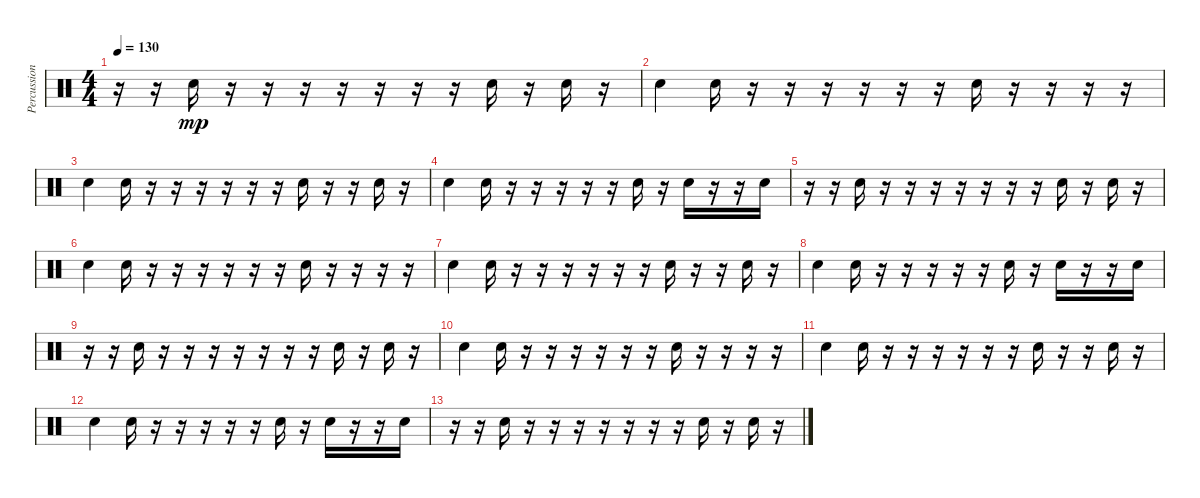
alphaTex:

\track ("Percussion" "Percussion") {instrument percussion}
\staff {score}
\articulation defaults
\ts (4 4)
\tempo 130
\clef neutral
\ks c
r.16{dy mp} r.16 "Snare (hit) 2".16 r.16 r.16 r.16 r.16 r.16 r.16 r.16 "Snare (hit) 2".16 r.16 "Snare (hit) 2".16 r.16 |
"Snare (hit) 2".4 "Snare (hit) 2".16 r.16 r.16 r.16 r.16 r.16 r.16 "Hand Clap (hit)".16 r.16 r.16 r.16 r.16 |
"Snare (hit) 2".4 "Snare (hit) 2".16 r.16 r.16 r.16 r.16 r.16 r.16 "Hand Clap (hit)".16 r.16 r.16 "Snare (hit) 2".16 r.16 |
"Snare (hit) 2".4 "Snare (hit) 2".16 r.16 r.16 r.16 r.16 r.16 "Snare (hit) 2".16 r.16 "Snare (hit) 2".16 r.16 r.16 "Snare (hit) 2".16 |
r.16 r.16 "Snare (hit) 2".16 r.16 r.16 r.16 r.16 r.16 r.16 r.16 "Snare (hit) 2".16 r.16 "Snare (hit) 2".16 r.16 |
"Snare (hit) 2".4 "Snare (hit) 2".16 r.16 r.16 r.16 r.16 r.16 r.16 "Hand Clap (hit)".16 r.16 r.16 r.16 r.16 |
"Snare (hit) 2".4 "Snare (hit) 2".16 r.16 r.16 r.16 r.16 r.16 r.16 "Hand Clap (hit)".16 r.16 r.16 "Snare (hit) 2".16 r.16 |
"Snare (hit) 2".4 "Snare (hit) 2".16 r.16 r.16 r.16 r.16 r.16 "Snare (hit) 2".16 r.16 "Snare (hit) 2".16 r.16 r.16 "Snare (hit) 2".16 |
r.16 r.16 "Snare (hit) 2".16 r.16 r.16 r.16 r.16 r.16 r.16 r.16 "Snare (hit) 2".16 r.16 "Snare (hit) 2".16 r.16 |
"Snare (hit) 2".4 "Snare (hit) 2".16 r.16 r.16 r.16 r.16 r.16 r.16 "Hand Clap (hit)".16 r.16 r.16 r.16 r.16 |
"Snare (hit) 2".4 "Snare (hit) 2".16 r.16 r.16 r.16 r.16 r.16 r.16 "Hand Clap (hit)".16 r.16 r.16 "Snare (hit) 2".16 r.16 |
"Snare (hit) 2".4 "Snare (hit) 2".16 r.16 r.16 r.16 r.16 r.16 "Snare (hit) 2".16 r.16 "Snare (hit) 2".16 r.16 r.16 "Snare (hit) 2".16 |
r.16 r.16 "Snare (hit) 2".16 r.16 r.16 r.16 r.16 r.16 r.16 r.16 "Snare (hit) 2".16 r.16 "Snare (hit) 2".16 r.16
